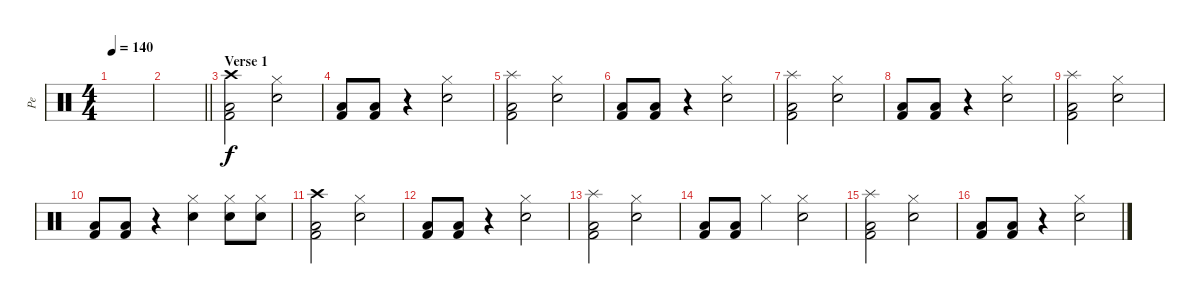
\track ("Pe" "Pe") {instrument percussion}
\staff {score}
\articulation defaults
\ts (4 4)
\tempo 140
\clef neutral
\ks c
|
\barLineRight lightlight
|
\section ("" "Verse 1")
("Crash high (hit)" "Low Floor Tom (hit)" "Kick (hit) 2").2 ("Snare (hit) 2" "Hi-Hat (closed)").2 |
("Low Floor Tom (hit)" "Kick (hit) 2").8 ("Low Floor Tom (hit)" "Kick (hit) 2").8 r.4 ("Snare (hit) 2" "Hi-Hat (closed)").2 |
("Splash (hit)" "Low Floor Tom (hit)" "Kick (hit) 2").2 ("Snare (hit) 2" "Hi-Hat (closed)").2 |
("Low Floor Tom (hit)" "Kick (hit) 2").8 ("Low Floor Tom (hit)" "Kick (hit) 2").8 r.4 ("Snare (hit) 2" "Hi-Hat (closed)").2 |
("Splash (hit)" "Low Floor Tom (hit)" "Kick (hit) 2").2 ("Snare (hit) 2" "Hi-Hat (closed)").2 |
("Low Floor Tom (hit)" "Kick (hit) 2").8 ("Low Floor Tom (hit)" "Kick (hit) 2").8 r.4 ("Snare (hit) 2" "Hi-Hat (closed)").2 |
("Splash (hit)" "Low Floor Tom (hit)" "Kick (hit) 2").2 ("Snare (hit) 2" "Hi-Hat (closed)").2 |
("Low Floor Tom (hit)" "Kick (hit) 2").8 ("Low Floor Tom (hit)" "Kick (hit) 2").8 r.4 ("Snare (hit) 2" "Hi-Hat (closed)").4 ("Snare (hit) 2" "Hi-Hat (closed)").8 ("Snare (hit) 2" "Hi-Hat (closed)").8 |
("Crash high (hit)" "Low Floor Tom (hit)" "Kick (hit) 2").2 ("Snare (hit) 2" "Hi-Hat (closed)").2 |
("Low Floor Tom (hit)" "Kick (hit) 2").8 ("Low Floor Tom (hit)" "Kick (hit) 2").8 r.4 ("Snare (hit) 2" "Hi-Hat (closed)").2 |
("Splash (hit)" "Low Floor Tom (hit)" "Kick (hit) 2").2 ("Snare (hit) 2" "Hi-Hat (closed)").2 |
("Low Floor Tom (hit)" "Kick (hit) 2").8 ("Low Floor Tom (hit)" "Kick (hit) 2").8 "Hi-Hat (closed)".4 ("Snare (hit) 2" "Hi-Hat (closed)").2 |
("Splash (hit)" "Low Floor Tom (hit)" "Kick (hit) 2").2 ("Snare (hit) 2" "Hi-Hat (closed)").2 |
("Low Floor Tom (hit)" "Kick (hit) 2").8 ("Low Floor Tom (hit)" "Kick (hit) 2").8 r.4 ("Snare (hit) 2" "Hi-Hat (closed)").2
